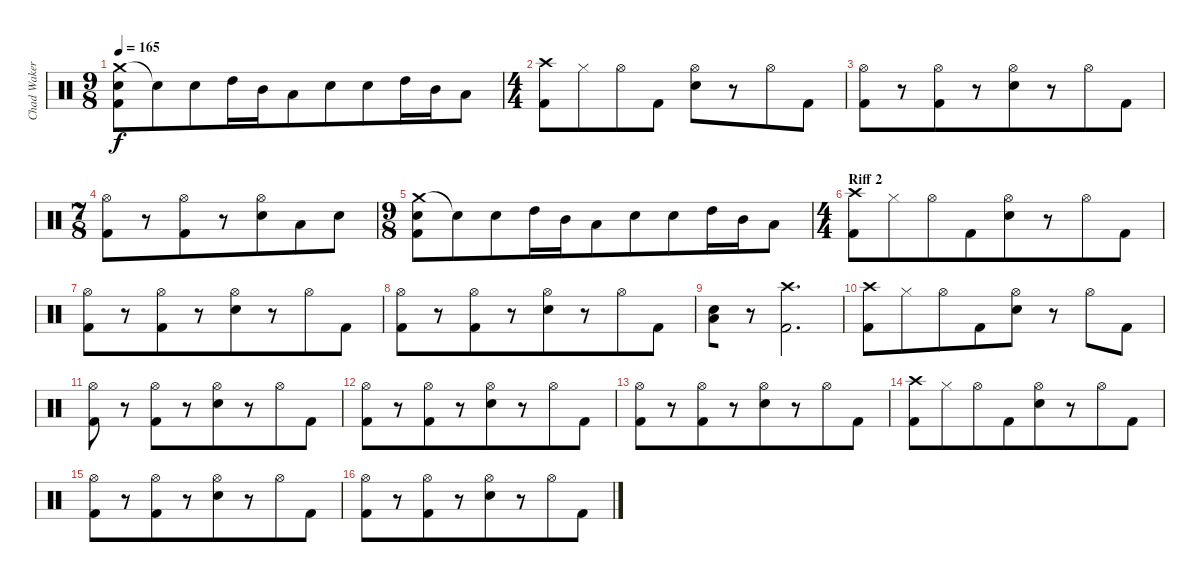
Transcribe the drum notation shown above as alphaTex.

\track ("Chad Wakerman - Percussion" "Chad Waker") {instrument percussion}
\staff {score}
\articulation defaults
\ts (9 8)
\tempo 165
\clef neutral
\ks c
("Crash medium (hit)" "Electric Snare (hit)" "Kick (hit) 2").8{dy f} "Electric Snare (hit)"{t}.8{beam merge} "Electric Snare (hit)".8{beam merge} "High Tom (hit)".16{beam merge} "Mid Tom (hit)".16{beam merge} "Low Tom (hit)".8{beam merge} "Electric Snare (hit)".8{beam merge} "Electric Snare (hit)".8{beam merge} "High Tom (hit)".16 "Mid Tom (hit)".16{beam merge} "Low Tom (hit)".8 |
\ts (4 4)
("Crash high (hit)" "Kick (hit) 2").8{beam merge} "Hi-Hat (closed)".8{beam merge} "Hi-Hat (open)".8{beam merge} "Kick (hit) 2".8 ("Hi-Hat (open)" "Electric Snare (hit)").8{beam merge} r.8{beam merge} "Hi-Hat (open)".8{beam merge} "Kick (hit) 2".8 |
("Hi-Hat (open)" "Kick (hit) 2").8{beam merge} r.8{beam merge} ("Hi-Hat (open)" "Kick (hit) 2").8{beam merge} r.8{beam merge} ("Hi-Hat (open)" "Electric Snare (hit)").8{beam merge} r.8{beam merge} "Hi-Hat (open)".8{beam merge} "Kick (hit) 2".8 |
\ts (7 8)
("Hi-Hat (open)" "Kick (hit) 2").8{beam merge} r.8 ("Hi-Hat (open)" "Kick (hit) 2").8{beam merge} r.8{beam merge} ("Hi-Hat (open)" "Electric Snare (hit)").8{beam merge} "Low Tom (hit)".8{beam merge} "Electric Snare (hit)".8 |
\ts (9 8)
("Crash medium (hit)" "Electric Snare (hit)" "Kick (hit) 2").8 "Electric Snare (hit)"{t}.8{beam merge} "Electric Snare (hit)".8{beam merge} "High Tom (hit)".16{beam merge} "Mid Tom (hit)".16{beam merge} "Low Tom (hit)".8{beam merge} "Electric Snare (hit)".8{beam merge} "Electric Snare (hit)".8{beam merge} "High Tom (hit)".16 "Mid Tom (hit)".16{beam merge} "Low Tom (hit)".8 |
\ts (4 4)
\section ("" "Riff 2")
("Crash high (hit)" "Kick (hit) 2").8{beam merge} "Hi-Hat (closed)".8{beam merge} "Hi-Hat (open)".8{beam merge} "Kick (hit) 2".8{beam merge} ("Hi-Hat (open)" "Electric Snare (hit)").8{beam merge} r.8 "Hi-Hat (open)".8{beam merge} "Kick (hit) 2".8 |
("Hi-Hat (open)" "Kick (hit) 2").8{beam merge} r.8{beam merge} ("Hi-Hat (open)" "Kick (hit) 2").8{beam merge} r.8{beam merge} ("Hi-Hat (open)" "Electric Snare (hit)").8{beam merge} r.8{beam merge} "Hi-Hat (open)".8{beam merge} "Kick (hit) 2".8 |
("Hi-Hat (open)" "Kick (hit) 2").8{beam merge} r.8{beam merge} ("Hi-Hat (open)" "Kick (hit) 2").8{beam merge} r.8{beam merge} ("Hi-Hat (open)" "Electric Snare (hit)").8{beam merge} r.8{beam merge} "Hi-Hat (open)".8{beam merge} "Kick (hit) 2".8 |
("Electric Snare (hit)" "Low Floor Tom (hit)").8{beam merge} r.8 ("Crash high (hit)" "Kick (hit) 2").2{d} |
("Crash high (hit)" "Kick (hit) 2").8{beam merge} "Hi-Hat (closed)".8{beam merge} "Hi-Hat (open)".8{beam merge} "Kick (hit) 2".8{beam merge} ("Hi-Hat (open)" "Electric Snare (hit)").8 r.8{beam merge} "Hi-Hat (open)".8{beam merge} "Kick (hit) 2".8 |
("Hi-Hat (open)" "Kick (hit) 2").8 r.8{beam merge} ("Hi-Hat (open)" "Kick (hit) 2").8{beam merge} r.8{beam merge} ("Hi-Hat (open)" "Electric Snare (hit)").8{beam merge} r.8{beam merge} "Hi-Hat (open)".8{beam merge} "Kick (hit) 2".8 |
("Hi-Hat (open)" "Kick (hit) 2").8{beam merge} r.8{beam merge} ("Hi-Hat (open)" "Kick (hit) 2").8{beam merge} r.8 ("Hi-Hat (open)" "Electric Snare (hit)").8{beam merge} r.8{beam merge} "Hi-Hat (open)".8{beam merge} "Kick (hit) 2".8 |
("Hi-Hat (open)" "Kick (hit) 2").8{beam merge} r.8{beam merge} ("Hi-Hat (open)" "Kick (hit) 2").8{beam merge} r.8{beam merge} ("Hi-Hat (open)" "Electric Snare (hit)").8{beam merge} r.8{beam merge} "Hi-Hat (open)".8{beam merge} "Kick (hit) 2".8 |
("Crash high (hit)" "Kick (hit) 2").8{beam merge} "Hi-Hat (closed)".8{beam merge} "Hi-Hat (open)".8{beam merge} "Kick (hit) 2".8{beam merge} ("Hi-Hat (open)" "Electric Snare (hit)").8{beam merge} r.8{beam merge} "Hi-Hat (open)".8{beam merge} "Kick (hit) 2".8 |
("Hi-Hat (open)" "Kick (hit) 2").8{beam merge} r.8{beam merge} ("Hi-Hat (open)" "Kick (hit) 2").8{beam merge} r.8{beam merge} ("Hi-Hat (open)" "Electric Snare (hit)").8{beam merge} r.8{beam merge} "Hi-Hat (open)".8{beam merge} "Kick (hit) 2".8 |
("Hi-Hat (open)" "Kick (hit) 2").8{beam merge} r.8{beam merge} ("Hi-Hat (open)" "Kick (hit) 2").8{beam merge} r.8{beam merge} ("Hi-Hat (open)" "Electric Snare (hit)").8{beam merge} r.8 "Hi-Hat (open)".8{beam merge} "Kick (hit) 2".8
